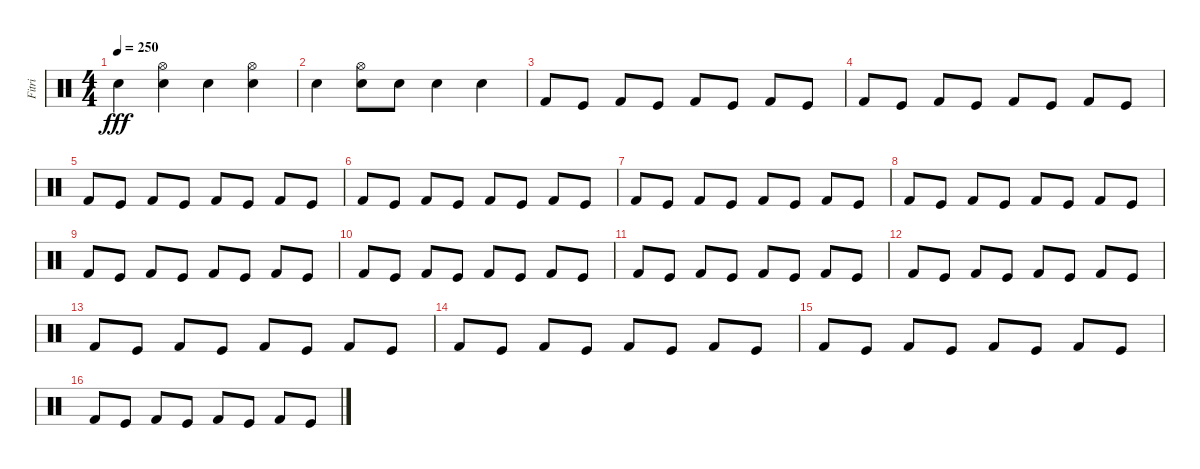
\track ("Fitri" "Fitri") {instrument percussion}
\staff {score}
\articulation defaults
\ts (4 4)
\tempo 250
\clef neutral
\ks c "Snare (hit) 2".4{dy fff}
("Hi-Hat (open)" "Snare (hit) 2").4 "Snare (hit) 2".4 ("Hi-Hat (open)" "Snare (hit) 2").4 |
"Snare (hit) 2".4 ("Hi-Hat (open)" "Snare (hit) 2").8 "Snare (hit) 2".8 "Snare (hit) 2".4 "Snare (hit) 2".4 |
"Kick (hit) 2".8 "Kick (hit)".8 "Kick (hit) 2".8 "Kick (hit)".8 "Kick (hit) 2".8 "Kick (hit)".8 "Kick (hit) 2".8 "Kick (hit)".8 |
"Kick (hit) 2".8 "Kick (hit)".8 "Kick (hit) 2".8 "Kick (hit)".8 "Kick (hit) 2".8 "Kick (hit)".8 "Kick (hit) 2".8 "Kick (hit)".8 |
"Kick (hit) 2".8 "Kick (hit)".8 "Kick (hit) 2".8 "Kick (hit)".8 "Kick (hit) 2".8 "Kick (hit)".8 "Kick (hit) 2".8 "Kick (hit)".8 |
"Kick (hit) 2".8 "Kick (hit)".8 "Kick (hit) 2".8 "Kick (hit)".8 "Kick (hit) 2".8 "Kick (hit)".8 "Kick (hit) 2".8 "Kick (hit)".8 |
"Kick (hit) 2".8 "Kick (hit)".8 "Kick (hit) 2".8 "Kick (hit)".8 "Kick (hit) 2".8 "Kick (hit)".8 "Kick (hit) 2".8 "Kick (hit)".8 |
"Kick (hit) 2".8 "Kick (hit)".8 "Kick (hit) 2".8 "Kick (hit)".8 "Kick (hit) 2".8 "Kick (hit)".8 "Kick (hit) 2".8 "Kick (hit)".8 |
"Kick (hit) 2".8 "Kick (hit)".8 "Kick (hit) 2".8 "Kick (hit)".8 "Kick (hit) 2".8 "Kick (hit)".8 "Kick (hit) 2".8 "Kick (hit)".8 |
"Kick (hit) 2".8 "Kick (hit)".8 "Kick (hit) 2".8 "Kick (hit)".8 "Kick (hit) 2".8 "Kick (hit)".8 "Kick (hit) 2".8 "Kick (hit)".8 |
"Kick (hit) 2".8 "Kick (hit)".8 "Kick (hit) 2".8 "Kick (hit)".8 "Kick (hit) 2".8 "Kick (hit)".8 "Kick (hit) 2".8 "Kick (hit)".8 |
"Kick (hit) 2".8 "Kick (hit)".8 "Kick (hit) 2".8 "Kick (hit)".8 "Kick (hit) 2".8 "Kick (hit)".8 "Kick (hit) 2".8 "Kick (hit)".8 |
"Kick (hit) 2".8 "Kick (hit)".8 "Kick (hit) 2".8 "Kick (hit)".8 "Kick (hit) 2".8 "Kick (hit)".8 "Kick (hit) 2".8 "Kick (hit)".8 |
"Kick (hit) 2".8 "Kick (hit)".8 "Kick (hit) 2".8 "Kick (hit)".8 "Kick (hit) 2".8 "Kick (hit)".8 "Kick (hit) 2".8 "Kick (hit)".8 |
"Kick (hit) 2".8 "Kick (hit)".8 "Kick (hit) 2".8 "Kick (hit)".8 "Kick (hit) 2".8 "Kick (hit)".8 "Kick (hit) 2".8 "Kick (hit)".8 |
"Kick (hit) 2".8 "Kick (hit)".8 "Kick (hit) 2".8 "Kick (hit)".8 "Kick (hit) 2".8 "Kick (hit)".8 "Kick (hit) 2".8 "Kick (hit)".8
